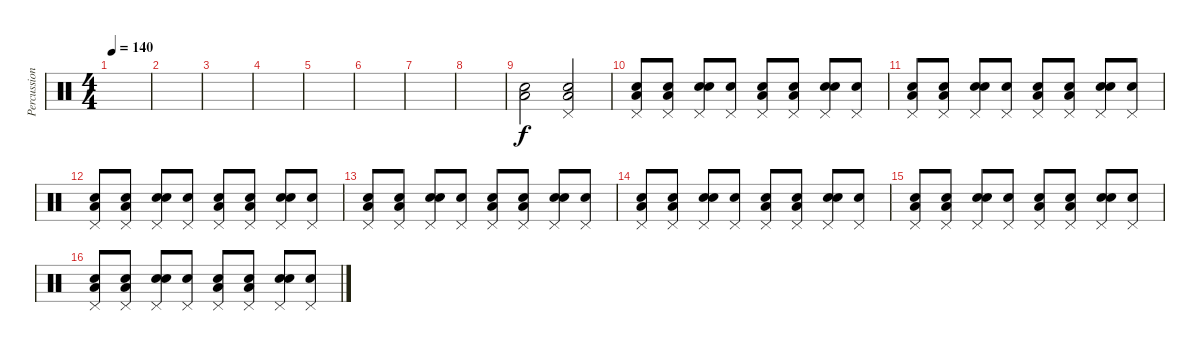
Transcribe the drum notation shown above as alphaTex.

\track ("Percussion" "Percussion") {instrument percussion}
\staff {score}
\articulation defaults
\ts (4 4)
\tempo 140
\clef neutral
\ks c
|
|
|
|
|
|
|
|
("Snare (hit)" "Low Floor Tom (hit)").2 ("Snare (hit)" "Low Floor Tom (hit)" "Pedal Hi-Hat (hit)").2 |
("Snare (hit)" "Low Floor Tom (hit)" "Pedal Hi-Hat (hit)").8 ("Snare (hit)" "Low Floor Tom (hit)" "Pedal Hi-Hat (hit)").8 ("Snare (hit)" "Electric Snare (hit)" "Pedal Hi-Hat (hit)").8 ("Snare (hit)" "Pedal Hi-Hat (hit)").8 ("Snare (hit)" "Low Floor Tom (hit)" "Pedal Hi-Hat (hit)").8 ("Snare (hit)" "Low Floor Tom (hit)" "Pedal Hi-Hat (hit)").8 ("Snare (hit)" "Electric Snare (hit)" "Pedal Hi-Hat (hit)").8 ("Snare (hit)" "Pedal Hi-Hat (hit)").8 |
("Snare (hit)" "Low Floor Tom (hit)" "Pedal Hi-Hat (hit)").8 ("Snare (hit)" "Low Floor Tom (hit)" "Pedal Hi-Hat (hit)").8 ("Snare (hit)" "Electric Snare (hit)" "Pedal Hi-Hat (hit)").8 ("Snare (hit)" "Pedal Hi-Hat (hit)").8 ("Snare (hit)" "Low Floor Tom (hit)" "Pedal Hi-Hat (hit)").8 ("Snare (hit)" "Low Floor Tom (hit)" "Pedal Hi-Hat (hit)").8 ("Snare (hit)" "Electric Snare (hit)" "Pedal Hi-Hat (hit)").8 ("Snare (hit)" "Pedal Hi-Hat (hit)").8 |
("Snare (hit)" "Low Floor Tom (hit)" "Pedal Hi-Hat (hit)").8 ("Snare (hit)" "Low Floor Tom (hit)" "Pedal Hi-Hat (hit)").8 ("Snare (hit)" "Electric Snare (hit)" "Pedal Hi-Hat (hit)").8 ("Snare (hit)" "Pedal Hi-Hat (hit)").8 ("Snare (hit)" "Low Floor Tom (hit)" "Pedal Hi-Hat (hit)").8 ("Snare (hit)" "Low Floor Tom (hit)" "Pedal Hi-Hat (hit)").8 ("Snare (hit)" "Electric Snare (hit)" "Pedal Hi-Hat (hit)").8 ("Snare (hit)" "Pedal Hi-Hat (hit)").8 |
("Snare (hit)" "Low Floor Tom (hit)" "Pedal Hi-Hat (hit)").8 ("Snare (hit)" "Low Floor Tom (hit)" "Pedal Hi-Hat (hit)").8 ("Snare (hit)" "Electric Snare (hit)" "Pedal Hi-Hat (hit)").8 ("Snare (hit)" "Pedal Hi-Hat (hit)").8 ("Snare (hit)" "Low Floor Tom (hit)" "Pedal Hi-Hat (hit)").8 ("Snare (hit)" "Low Floor Tom (hit)" "Pedal Hi-Hat (hit)").8 ("Snare (hit)" "Electric Snare (hit)" "Pedal Hi-Hat (hit)").8 ("Snare (hit)" "Pedal Hi-Hat (hit)").8 |
("Snare (hit)" "Low Floor Tom (hit)" "Pedal Hi-Hat (hit)").8 ("Snare (hit)" "Low Floor Tom (hit)" "Pedal Hi-Hat (hit)").8 ("Snare (hit)" "Electric Snare (hit)" "Pedal Hi-Hat (hit)").8 ("Snare (hit)" "Pedal Hi-Hat (hit)").8 ("Snare (hit)" "Low Floor Tom (hit)" "Pedal Hi-Hat (hit)").8 ("Snare (hit)" "Low Floor Tom (hit)" "Pedal Hi-Hat (hit)").8 ("Snare (hit)" "Electric Snare (hit)" "Pedal Hi-Hat (hit)").8 ("Snare (hit)" "Pedal Hi-Hat (hit)").8 |
("Snare (hit)" "Low Floor Tom (hit)" "Pedal Hi-Hat (hit)").8 ("Snare (hit)" "Low Floor Tom (hit)" "Pedal Hi-Hat (hit)").8 ("Snare (hit)" "Electric Snare (hit)" "Pedal Hi-Hat (hit)").8 ("Snare (hit)" "Pedal Hi-Hat (hit)").8 ("Snare (hit)" "Low Floor Tom (hit)" "Pedal Hi-Hat (hit)").8 ("Snare (hit)" "Low Floor Tom (hit)" "Pedal Hi-Hat (hit)").8 ("Snare (hit)" "Electric Snare (hit)" "Pedal Hi-Hat (hit)").8 ("Snare (hit)" "Pedal Hi-Hat (hit)").8 |
("Snare (hit)" "Low Floor Tom (hit)" "Pedal Hi-Hat (hit)").8 ("Snare (hit)" "Low Floor Tom (hit)" "Pedal Hi-Hat (hit)").8 ("Snare (hit)" "Electric Snare (hit)" "Pedal Hi-Hat (hit)").8 ("Snare (hit)" "Pedal Hi-Hat (hit)").8 ("Snare (hit)" "Low Floor Tom (hit)" "Pedal Hi-Hat (hit)").8 ("Snare (hit)" "Low Floor Tom (hit)" "Pedal Hi-Hat (hit)").8 ("Snare (hit)" "Electric Snare (hit)" "Pedal Hi-Hat (hit)").8 ("Snare (hit)" "Pedal Hi-Hat (hit)").8
